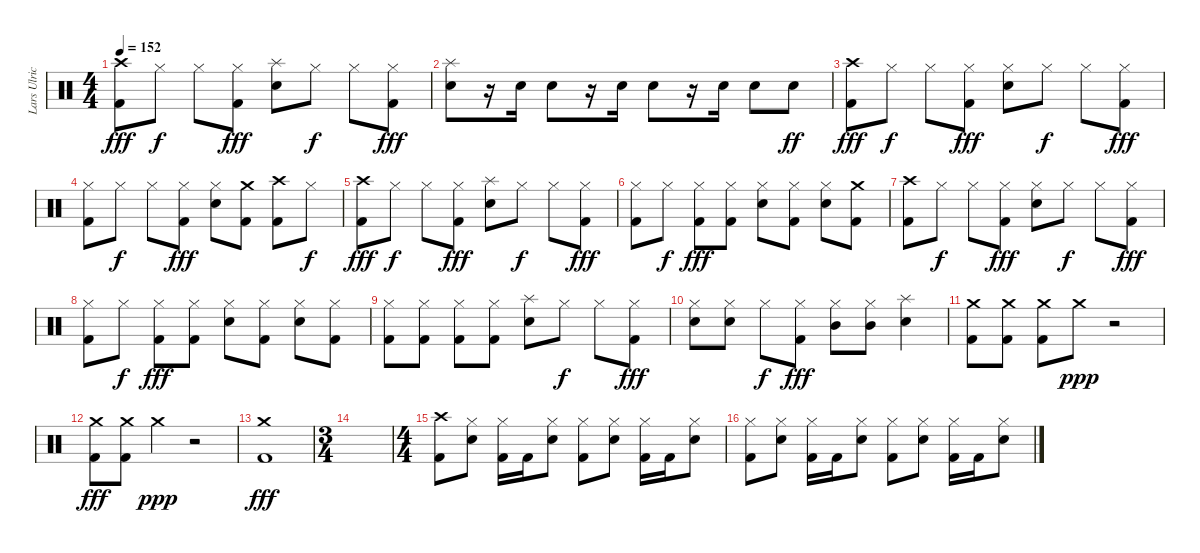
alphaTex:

\track ("Lars Ulrich" "Lars Ulric") {instrument percussion}
\staff {score}
\articulation defaults
\ts (4 4)
\tempo 152
\clef neutral
\ks c
("Crash high (hit)" "Kick (hit) 2").8{dy fff} "Hi-Hat (closed)".8{dy f} "Hi-Hat (closed)".8 ("Hi-Hat (closed)" "Kick (hit) 2").8{dy fff} ("Splash (hit)" "Snare (hit) 2").8 "Hi-Hat (closed)".8{dy f} "Hi-Hat (closed)".8 ("Hi-Hat (closed)" "Kick (hit) 2").8{dy fff} |
("Splash (hit)" "Snare (hit) 2").8 r.16 "Snare (hit) 2".16 "Snare (hit) 2".8 r.16 "Snare (hit) 2".16 "Snare (hit) 2".8 r.16 "Snare (hit) 2".16 "Snare (hit) 2".8 "Snare (hit) 2".8{dy ff} |
("Crash high (hit)" "Kick (hit) 2").8{dy fff} "Hi-Hat (closed)".8{dy f} "Hi-Hat (closed)".8 ("Hi-Hat (closed)" "Kick (hit) 2").8{dy fff} ("Hi-Hat (closed)" "Snare (hit) 2").8 "Hi-Hat (closed)".8{dy f} "Hi-Hat (closed)".8 ("Hi-Hat (closed)" "Kick (hit) 2").8{dy fff} |
("Hi-Hat (closed)" "Kick (hit) 2").8 "Hi-Hat (closed)".8{dy f} "Hi-Hat (closed)".8 ("Hi-Hat (closed)" "Kick (hit) 2").8{dy fff} ("Hi-Hat (closed)" "Snare (hit) 2").8 ("Crash medium (hit)" "Kick (hit) 2").8 ("Crash high (hit)" "Kick (hit) 2").8 "Hi-Hat (closed)".8{dy f} |
("Crash high (hit)" "Kick (hit) 2").8{dy fff} "Hi-Hat (closed)".8{dy f} "Hi-Hat (closed)".8 ("Hi-Hat (closed)" "Kick (hit) 2").8{dy fff} ("Splash (hit)" "Snare (hit) 2").8 "Hi-Hat (closed)".8{dy f} "Hi-Hat (closed)".8 ("Hi-Hat (closed)" "Kick (hit) 2").8{dy fff} |
("Hi-Hat (closed)" "Kick (hit) 2").8 "Hi-Hat (closed)".8{dy f} ("Hi-Hat (closed)" "Kick (hit) 2").8{dy fff} ("Hi-Hat (closed)" "Kick (hit) 2").8 ("Hi-Hat (closed)" "Snare (hit) 2").8 ("Hi-Hat (closed)" "Kick (hit) 2").8 ("Hi-Hat (closed)" "Snare (hit) 2").8 ("Crash medium (hit)" "Kick (hit) 2").8 |
("Crash high (hit)" "Kick (hit) 2").8 "Hi-Hat (closed)".8{dy f} "Hi-Hat (closed)".8 ("Hi-Hat (closed)" "Kick (hit) 2").8{dy fff} ("Hi-Hat (closed)" "Snare (hit) 2").8 "Hi-Hat (closed)".8{dy f} "Hi-Hat (closed)".8 ("Hi-Hat (closed)" "Kick (hit) 2").8{dy fff} |
("Hi-Hat (closed)" "Kick (hit) 2").8 "Hi-Hat (closed)".8{dy f} ("Hi-Hat (closed)" "Kick (hit) 2").8{dy fff} ("Hi-Hat (closed)" "Kick (hit) 2").8 ("Hi-Hat (closed)" "Snare (hit) 2").8 ("Hi-Hat (closed)" "Kick (hit) 2").8 ("Hi-Hat (closed)" "Snare (hit) 2").8 ("Hi-Hat (closed)" "Kick (hit) 2").8 |
("Hi-Hat (closed)" "Kick (hit) 2").8 ("Hi-Hat (closed)" "Kick (hit) 2").8 ("Hi-Hat (closed)" "Kick (hit) 2").8 ("Hi-Hat (closed)" "Kick (hit) 2").8 ("Splash (hit)" "Snare (hit) 2").8 "Hi-Hat (closed)".8{dy f} "Hi-Hat (closed)".8 ("Hi-Hat (closed)" "Kick (hit) 2").8{dy fff} |
("Hi-Hat (closed)" "Snare (hit) 2").8 ("Hi-Hat (closed)" "Snare (hit) 2").8 "Hi-Hat (closed)".8{dy f} ("Hi-Hat (closed)" "Kick (hit) 2").8{dy fff} ("Hi-Hat (closed)" "Mid Tom (hit)").8 ("Hi-Hat (closed)" "Mid Tom (hit)").8 ("Splash (hit)" "Snare (hit) 2").4 |
("Crash medium (hit)" "Kick (hit) 2").8 ("Crash medium (hit)" "Kick (hit) 2").8 ("Crash medium (hit)" "Kick (hit) 2").8 "Crash medium (hit)".8{dy ppp} r.2 |
("Crash medium (hit)" "Kick (hit) 2").8{dy fff} ("Crash medium (hit)" "Kick (hit) 2").8 "Crash medium (hit)".4{dy ppp} r.2 |
("Crash medium (hit)" "Kick (hit) 2").1{dy fff} |
\ts (3 4)
|
\ts (4 4)
("Crash high (hit)" "Kick (hit) 2").8 ("Hi-Hat (closed)" "Snare (hit) 2").8 ("Hi-Hat (closed)" "Kick (hit) 2").16 "Kick (hit) 2".16 ("Hi-Hat (closed)" "Snare (hit) 2").8 ("Hi-Hat (closed)" "Kick (hit) 2").8 ("Hi-Hat (closed)" "Snare (hit) 2").8 ("Hi-Hat (closed)" "Kick (hit) 2").16 "Kick (hit) 2".16 ("Hi-Hat (closed)" "Snare (hit) 2").8 |
("Hi-Hat (closed)" "Kick (hit) 2").8 ("Hi-Hat (closed)" "Snare (hit) 2").8 ("Hi-Hat (closed)" "Kick (hit) 2").16 "Kick (hit) 2".16 ("Hi-Hat (closed)" "Snare (hit) 2").8 ("Hi-Hat (closed)" "Kick (hit) 2").8 ("Hi-Hat (closed)" "Snare (hit) 2").8 ("Hi-Hat (closed)" "Kick (hit) 2").16 "Kick (hit) 2".16 ("Hi-Hat (closed)" "Snare (hit) 2").8
